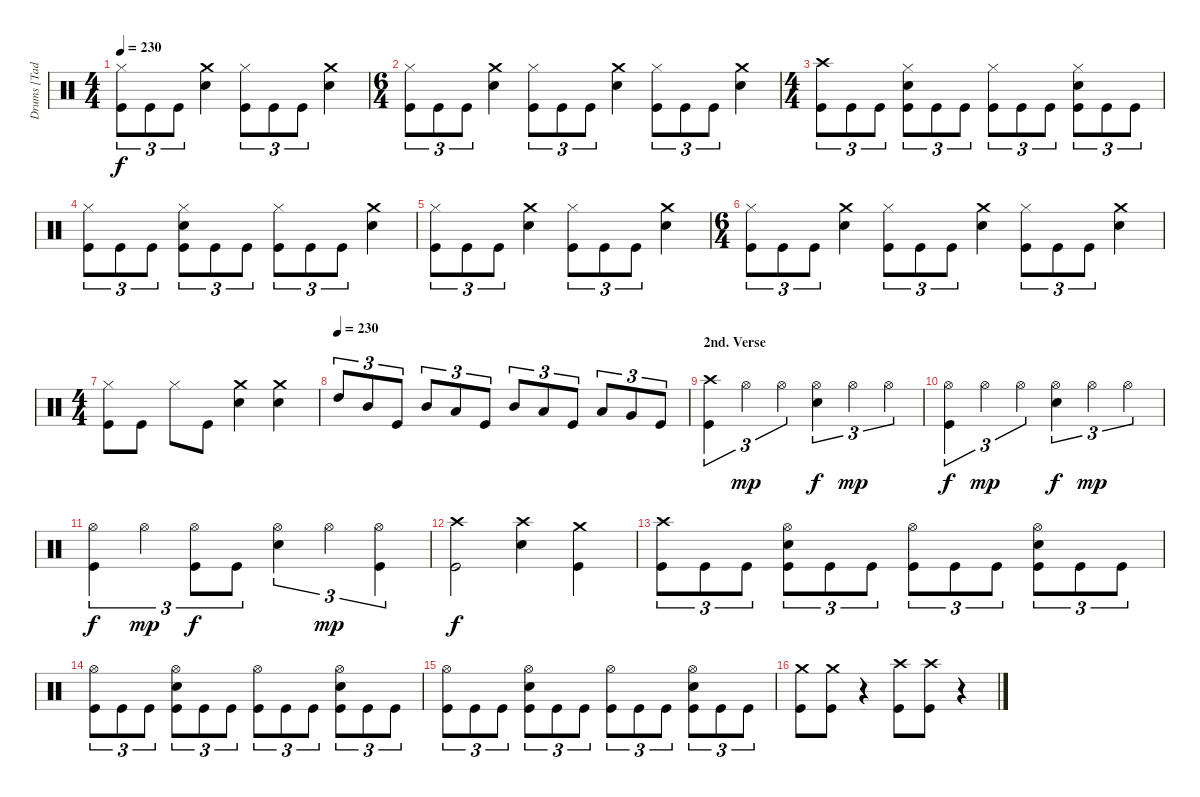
\track ("Drums [Tad Leger]" "Drums [Tad") {instrument percussion}
\staff {score}
\articulation defaults
\ts (4 4)
\tempo 230
\clef neutral
\ks c
("Hi-Hat (closed)" "Kick (hit)").8{tu (3 2) dy f} "Kick (hit)".8{tu (3 2)} "Kick (hit)".8{tu (3 2)} ("Crash medium (hit)" "Electric Snare (hit)").4 ("Hi-Hat (closed)" "Kick (hit)").8{tu (3 2)} "Kick (hit)".8{tu (3 2)} "Kick (hit)".8{tu (3 2)} ("Crash medium (hit)" "Electric Snare (hit)").4 |
\ts (6 4)
("Hi-Hat (closed)" "Kick (hit)").8{tu (3 2)} "Kick (hit)".8{tu (3 2)} "Kick (hit)".8{tu (3 2)} ("Crash medium (hit)" "Electric Snare (hit)").4 ("Hi-Hat (closed)" "Kick (hit)").8{tu (3 2)} "Kick (hit)".8{tu (3 2)} "Kick (hit)".8{tu (3 2)} ("Crash medium (hit)" "Electric Snare (hit)").4 ("Hi-Hat (closed)" "Kick (hit)").8{tu (3 2)} "Kick (hit)".8{tu (3 2)} "Kick (hit)".8{tu (3 2)} ("Crash medium (hit)" "Electric Snare (hit)").4 |
\ts (4 4)
("Crash high (hit)" "Kick (hit)").8{tu (3 2)} "Kick (hit)".8{tu (3 2)} "Kick (hit)".8{tu (3 2)} ("Hi-Hat (closed)" "Electric Snare (hit)" "Kick (hit)").8{tu (3 2)} "Kick (hit)".8{tu (3 2)} "Kick (hit)".8{tu (3 2)} ("Hi-Hat (closed)" "Kick (hit)").8{tu (3 2)} "Kick (hit)".8{tu (3 2)} "Kick (hit)".8{tu (3 2)} ("Hi-Hat (closed)" "Electric Snare (hit)" "Kick (hit)").8{tu (3 2)} "Kick (hit)".8{tu (3 2)} "Kick (hit)".8{tu (3 2)} |
("Hi-Hat (closed)" "Kick (hit)").8{tu (3 2)} "Kick (hit)".8{tu (3 2)} "Kick (hit)".8{tu (3 2)} ("Hi-Hat (closed)" "Electric Snare (hit)" "Kick (hit)").8{tu (3 2)} "Kick (hit)".8{tu (3 2)} "Kick (hit)".8{tu (3 2)} ("Hi-Hat (closed)" "Kick (hit)").8{tu (3 2)} "Kick (hit)".8{tu (3 2)} "Kick (hit)".8{tu (3 2)} ("Crash medium (hit)" "Electric Snare (hit)").4 |
("Hi-Hat (closed)" "Kick (hit)").8{tu (3 2)} "Kick (hit)".8{tu (3 2)} "Kick (hit)".8{tu (3 2)} ("Crash medium (hit)" "Electric Snare (hit)").4 ("Hi-Hat (closed)" "Kick (hit)").8{tu (3 2)} "Kick (hit)".8{tu (3 2)} "Kick (hit)".8{tu (3 2)} ("Crash medium (hit)" "Electric Snare (hit)").4 |
\ts (6 4)
("Hi-Hat (closed)" "Kick (hit)").8{tu (3 2)} "Kick (hit)".8{tu (3 2)} "Kick (hit)".8{tu (3 2)} ("Crash medium (hit)" "Electric Snare (hit)").4 ("Hi-Hat (closed)" "Kick (hit)").8{tu (3 2)} "Kick (hit)".8{tu (3 2)} "Kick (hit)".8{tu (3 2)} ("Crash medium (hit)" "Electric Snare (hit)").4 ("Hi-Hat (closed)" "Kick (hit)").8{tu (3 2)} "Kick (hit)".8{tu (3 2)} "Kick (hit)".8{tu (3 2)} ("Crash medium (hit)" "Electric Snare (hit)").4 |
\ts (4 4)
("Hi-Hat (closed)" "Kick (hit)").8 "Kick (hit)".8 "Hi-Hat (closed)".8 "Kick (hit)".8 ("Crash medium (hit)" "Electric Snare (hit)").4 ("Crash medium (hit)" "Electric Snare (hit)").4 |
\tempo (230)
"High Tom (hit)".8{tu (3 2)} "Mid Tom (hit)".8{tu (3 2)} "Kick (hit)".8{tu (3 2)} "Mid Tom (hit)".8{tu (3 2)} "Low Tom (hit)".8{tu (3 2)} "Kick (hit)".8{tu (3 2)} "Mid Tom (hit)".8{tu (3 2)} "Low Tom (hit)".8{tu (3 2)} "Kick (hit)".8{tu (3 2)} "Low Tom (hit)".8{tu (3 2)} "Very Low Tom (hit)".8{tu (3 2)} "Kick (hit)".8{tu (3 2)} |
\section ("" "2nd. Verse")
("Crash high (hit)" "Kick (hit)").4{tu (3 2)} "Hi-Hat (open)".4{tu (3 2) dy mp} "Hi-Hat (open)".4{tu (3 2)} ("Hi-Hat (open)" "Electric Snare (hit)").4{tu (3 2) dy f} "Hi-Hat (open)".4{tu (3 2) dy mp} "Hi-Hat (open)".4{tu (3 2)} |
("Hi-Hat (open)" "Kick (hit)").4{tu (3 2) dy f} "Hi-Hat (open)".4{tu (3 2) dy mp} "Hi-Hat (open)".4{tu (3 2)} ("Hi-Hat (open)" "Electric Snare (hit)").4{tu (3 2) dy f} "Hi-Hat (open)".4{tu (3 2) dy mp} "Hi-Hat (open)".4{tu (3 2)} |
("Hi-Hat (open)" "Kick (hit)").4{tu (3 2) dy f} "Hi-Hat (open)".4{tu (3 2) dy mp} ("Hi-Hat (open)" "Kick (hit)").8{tu (3 2) dy f} "Kick (hit)".8{tu (3 2)} ("Hi-Hat (open)" "Electric Snare (hit)").4{tu (3 2)} "Hi-Hat (open)".4{tu (3 2) dy mp} ("Hi-Hat (open)" "Kick (hit)").4{tu (3 2)} |
("Crash high (hit)" "Kick (hit)").2{dy f} ("Crash high (hit)" "Electric Snare (hit)").4 ("Crash medium (hit)" "Kick (hit)").4 |
("Crash high (hit)" "Kick (hit)").8{tu (3 2)} "Kick (hit)".8{tu (3 2)} "Kick (hit)".8{tu (3 2)} ("Hi-Hat (open)" "Electric Snare (hit)" "Kick (hit)").8{tu (3 2)} "Kick (hit)".8{tu (3 2)} "Kick (hit)".8{tu (3 2)} ("Hi-Hat (open)" "Kick (hit)").8{tu (3 2)} "Kick (hit)".8{tu (3 2)} "Kick (hit)".8{tu (3 2)} ("Hi-Hat (open)" "Electric Snare (hit)" "Kick (hit)").8{tu (3 2)} "Kick (hit)".8{tu (3 2)} "Kick (hit)".8{tu (3 2)} |
("Hi-Hat (open)" "Kick (hit)").8{tu (3 2)} "Kick (hit)".8{tu (3 2)} "Kick (hit)".8{tu (3 2)} ("Hi-Hat (open)" "Electric Snare (hit)" "Kick (hit)").8{tu (3 2)} "Kick (hit)".8{tu (3 2)} "Kick (hit)".8{tu (3 2)} ("Hi-Hat (open)" "Kick (hit)").8{tu (3 2)} "Kick (hit)".8{tu (3 2)} "Kick (hit)".8{tu (3 2)} ("Hi-Hat (open)" "Electric Snare (hit)" "Kick (hit)").8{tu (3 2)} "Kick (hit)".8{tu (3 2)} "Kick (hit)".8{tu (3 2)} |
("Hi-Hat (open)" "Kick (hit)").8{tu (3 2)} "Kick (hit)".8{tu (3 2)} "Kick (hit)".8{tu (3 2)} ("Hi-Hat (open)" "Electric Snare (hit)" "Kick (hit)").8{tu (3 2)} "Kick (hit)".8{tu (3 2)} "Kick (hit)".8{tu (3 2)} ("Hi-Hat (open)" "Kick (hit)").8{tu (3 2)} "Kick (hit)".8{tu (3 2)} "Kick (hit)".8{tu (3 2)} ("Hi-Hat (open)" "Electric Snare (hit)" "Kick (hit)").8{tu (3 2)} "Kick (hit)".8{tu (3 2)} "Kick (hit)".8{tu (3 2)} |
("Crash medium (hit)" "Kick (hit)").8 ("Crash medium (hit)" "Kick (hit)").8 r.4 ("Crash high (hit)" "Kick (hit)").8 ("Crash high (hit)" "Kick (hit)").8 r.4
